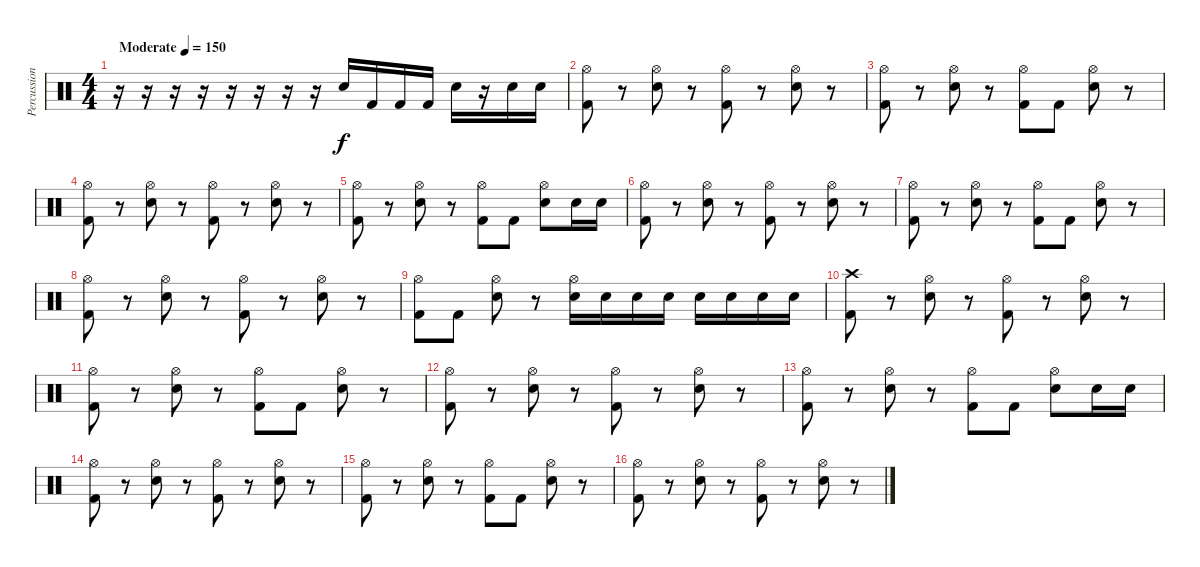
\track ("Percussion" "Percussion") {instrument percussion}
\staff {score}
\articulation defaults
\ts (4 4)
\tempo (150 "Moderate")
\clef neutral
\ks c
r.16{dy f} r.16 r.16 r.16 r.16 r.16 r.16 r.16 "Electric Snare (hit)".16 "Kick (hit) 2".16 "Kick (hit) 2".16 "Kick (hit) 2".16 "Electric Snare (hit)".16 r.16 "Electric Snare (hit)".16 "Electric Snare (hit)".16 |
("Hi-Hat (open)" "Kick (hit) 2").8 r.8 ("Hi-Hat (open)" "Electric Snare (hit)").8 r.8 ("Hi-Hat (open)" "Kick (hit) 2").8 r.8 ("Hi-Hat (open)" "Electric Snare (hit)").8 r.8 |
("Hi-Hat (open)" "Kick (hit) 2").8 r.8 ("Hi-Hat (open)" "Electric Snare (hit)").8 r.8 ("Hi-Hat (open)" "Kick (hit) 2").8 "Kick (hit) 2".8 ("Hi-Hat (open)" "Electric Snare (hit)").8 r.8 |
("Hi-Hat (open)" "Kick (hit) 2").8 r.8 ("Hi-Hat (open)" "Electric Snare (hit)").8 r.8 ("Hi-Hat (open)" "Kick (hit) 2").8 r.8 ("Hi-Hat (open)" "Electric Snare (hit)").8 r.8 |
("Hi-Hat (open)" "Kick (hit) 2").8 r.8 ("Hi-Hat (open)" "Electric Snare (hit)").8 r.8 ("Hi-Hat (open)" "Kick (hit) 2").8 "Kick (hit) 2".8 ("Hi-Hat (open)" "Electric Snare (hit)").8 "Electric Snare (hit)".16 "Electric Snare (hit)".16 |
("Hi-Hat (open)" "Kick (hit) 2").8 r.8 ("Hi-Hat (open)" "Electric Snare (hit)").8 r.8 ("Hi-Hat (open)" "Kick (hit) 2").8 r.8 ("Hi-Hat (open)" "Electric Snare (hit)").8 r.8 |
("Hi-Hat (open)" "Kick (hit) 2").8 r.8 ("Hi-Hat (open)" "Electric Snare (hit)").8 r.8 ("Hi-Hat (open)" "Kick (hit) 2").8 "Kick (hit) 2".8 ("Hi-Hat (open)" "Electric Snare (hit)").8 r.8 |
("Hi-Hat (open)" "Kick (hit) 2").8 r.8 ("Hi-Hat (open)" "Electric Snare (hit)").8 r.8 ("Hi-Hat (open)" "Kick (hit) 2").8 r.8 ("Hi-Hat (open)" "Electric Snare (hit)").8 r.8 |
("Hi-Hat (open)" "Kick (hit) 2").8 "Kick (hit) 2".8 ("Hi-Hat (open)" "Electric Snare (hit)").8 r.8 ("Hi-Hat (open)" "Electric Snare (hit)").16 "Electric Snare (hit)".16 "Electric Snare (hit)".16 "Electric Snare (hit)".16 "Electric Snare (hit)".16 "Electric Snare (hit)".16 "Electric Snare (hit)".16 "Electric Snare (hit)".16 |
("Crash high (hit)" "Kick (hit) 2").8 r.8 ("Hi-Hat (open)" "Electric Snare (hit)").8 r.8 ("Hi-Hat (open)" "Kick (hit) 2").8 r.8 ("Hi-Hat (open)" "Electric Snare (hit)").8 r.8 |
("Hi-Hat (open)" "Kick (hit) 2").8 r.8 ("Hi-Hat (open)" "Electric Snare (hit)").8 r.8 ("Hi-Hat (open)" "Kick (hit) 2").8 "Kick (hit) 2".8 ("Hi-Hat (open)" "Electric Snare (hit)").8 r.8 |
("Hi-Hat (open)" "Kick (hit) 2").8 r.8 ("Hi-Hat (open)" "Electric Snare (hit)").8 r.8 ("Hi-Hat (open)" "Kick (hit) 2").8 r.8 ("Hi-Hat (open)" "Electric Snare (hit)").8 r.8 |
("Hi-Hat (open)" "Kick (hit) 2").8 r.8 ("Hi-Hat (open)" "Electric Snare (hit)").8 r.8 ("Hi-Hat (open)" "Kick (hit) 2").8 "Kick (hit) 2".8 ("Hi-Hat (open)" "Electric Snare (hit)").8 "Electric Snare (hit)".16 "Electric Snare (hit)".16 |
("Hi-Hat (open)" "Kick (hit) 2").8 r.8 ("Hi-Hat (open)" "Electric Snare (hit)").8 r.8 ("Hi-Hat (open)" "Kick (hit) 2").8 r.8 ("Hi-Hat (open)" "Electric Snare (hit)").8 r.8 |
("Hi-Hat (open)" "Kick (hit) 2").8 r.8 ("Hi-Hat (open)" "Electric Snare (hit)").8 r.8 ("Hi-Hat (open)" "Kick (hit) 2").8 "Kick (hit) 2".8 ("Hi-Hat (open)" "Electric Snare (hit)").8 r.8 |
("Hi-Hat (open)" "Kick (hit) 2").8 r.8 ("Hi-Hat (open)" "Electric Snare (hit)").8 r.8 ("Hi-Hat (open)" "Kick (hit) 2").8 r.8 ("Hi-Hat (open)" "Electric Snare (hit)").8 r.8
